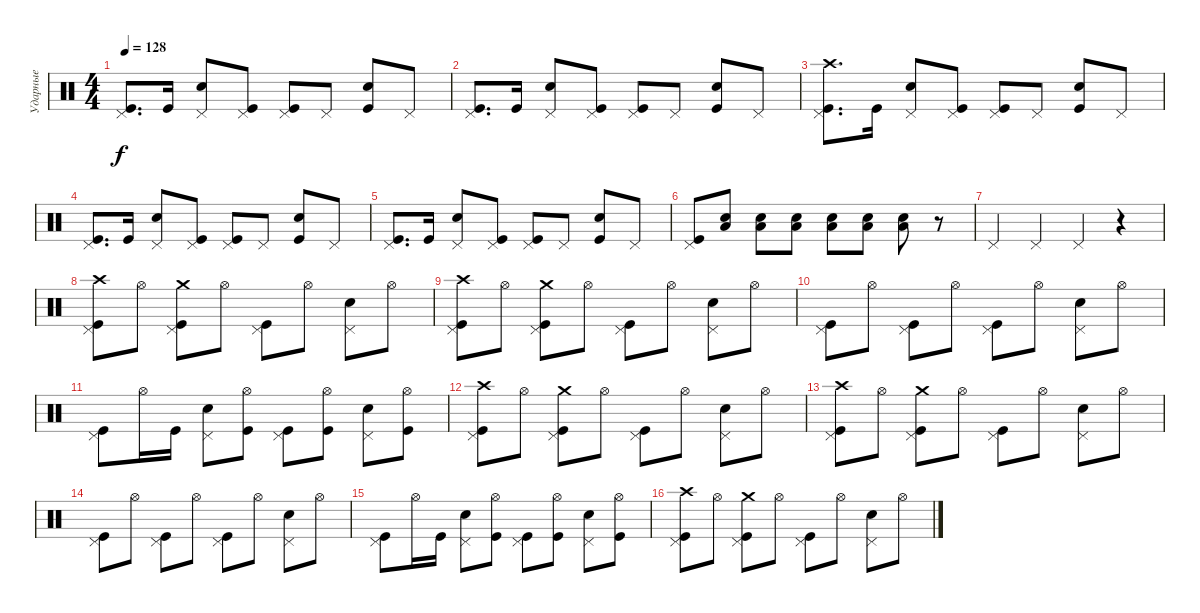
\track ("Ударные" "Ударные") {instrument percussion}
\staff {score}
\articulation defaults
\ts (4 4)
\tempo 128
\clef neutral
\ks c
("Kick (hit)" "Pedal Hi-Hat (hit)").8{d dy f} "Kick (hit)".16 ("Pedal Hi-Hat (hit)" "Snare (hit) 2").8 ("Kick (hit)" "Pedal Hi-Hat (hit)").8 ("Kick (hit)" "Pedal Hi-Hat (hit)").8 "Pedal Hi-Hat (hit)".8 ("Kick (hit)" "Snare (hit) 2").8 "Pedal Hi-Hat (hit)".8 |
("Kick (hit)" "Pedal Hi-Hat (hit)").8{d} "Kick (hit)".16 ("Pedal Hi-Hat (hit)" "Snare (hit) 2").8 ("Kick (hit)" "Pedal Hi-Hat (hit)").8 ("Kick (hit)" "Pedal Hi-Hat (hit)").8 "Pedal Hi-Hat (hit)".8 ("Kick (hit)" "Snare (hit) 2").8 "Pedal Hi-Hat (hit)".8 |
("Kick (hit)" "Pedal Hi-Hat (hit)" "Crash high (hit)").8{d} "Kick (hit)".16 ("Pedal Hi-Hat (hit)" "Snare (hit) 2").8 ("Kick (hit)" "Pedal Hi-Hat (hit)").8 ("Kick (hit)" "Pedal Hi-Hat (hit)").8 "Pedal Hi-Hat (hit)".8 ("Kick (hit)" "Snare (hit) 2").8 "Pedal Hi-Hat (hit)".8 |
("Kick (hit)" "Pedal Hi-Hat (hit)").8{d} "Kick (hit)".16 ("Pedal Hi-Hat (hit)" "Snare (hit) 2").8 ("Kick (hit)" "Pedal Hi-Hat (hit)").8 ("Kick (hit)" "Pedal Hi-Hat (hit)").8 "Pedal Hi-Hat (hit)".8 ("Kick (hit)" "Snare (hit) 2").8 "Pedal Hi-Hat (hit)".8 |
("Kick (hit)" "Pedal Hi-Hat (hit)").8{d} "Kick (hit)".16 ("Pedal Hi-Hat (hit)" "Snare (hit) 2").8 ("Kick (hit)" "Pedal Hi-Hat (hit)").8 ("Kick (hit)" "Pedal Hi-Hat (hit)").8 "Pedal Hi-Hat (hit)".8 ("Kick (hit)" "Snare (hit) 2").8 "Pedal Hi-Hat (hit)".8 |
("Kick (hit)" "Pedal Hi-Hat (hit)").8 ("Snare (hit) 2" "Low Tom (hit)").8 ("Snare (hit) 2" "Low Tom (hit)").8 ("Snare (hit) 2" "Low Tom (hit)").8 ("Snare (hit) 2" "Low Tom (hit)").8 ("Snare (hit) 2" "Low Tom (hit)").8 ("Snare (hit) 2" "Low Tom (hit)").8 r.8 |
"Pedal Hi-Hat (hit)".4 "Pedal Hi-Hat (hit)".4 "Pedal Hi-Hat (hit)".4 r.4 |
("Kick (hit)" "Pedal Hi-Hat (hit)" "Crash high (hit)").8 "Hi-Hat (open)".8 ("Kick (hit)" "Pedal Hi-Hat (hit)" "Crash medium (hit)").8 "Hi-Hat (open)".8 ("Kick (hit)" "Pedal Hi-Hat (hit)").8 "Hi-Hat (open)".8 ("Snare (hit) 2" "Pedal Hi-Hat (hit)").8 "Hi-Hat (open)".8 |
("Kick (hit)" "Pedal Hi-Hat (hit)" "Crash high (hit)").8 "Hi-Hat (open)".8 ("Kick (hit)" "Pedal Hi-Hat (hit)" "Crash medium (hit)").8 "Hi-Hat (open)".8 ("Kick (hit)" "Pedal Hi-Hat (hit)").8 "Hi-Hat (open)".8 ("Snare (hit) 2" "Pedal Hi-Hat (hit)").8 "Hi-Hat (open)".8 |
("Kick (hit)" "Pedal Hi-Hat (hit)").8 "Hi-Hat (open)".8 ("Kick (hit)" "Pedal Hi-Hat (hit)").8 "Hi-Hat (open)".8 ("Kick (hit)" "Pedal Hi-Hat (hit)").8 "Hi-Hat (open)".8 ("Snare (hit) 2" "Pedal Hi-Hat (hit)").8 "Hi-Hat (open)".8 |
("Kick (hit)" "Pedal Hi-Hat (hit)").8 "Hi-Hat (open)".16 "Kick (hit)".16 ("Pedal Hi-Hat (hit)" "Snare (hit) 2").8 ("Kick (hit)" "Hi-Hat (open)").8 ("Kick (hit)" "Pedal Hi-Hat (hit)").8 ("Kick (hit)" "Hi-Hat (open)").8 ("Snare (hit) 2" "Pedal Hi-Hat (hit)").8 ("Kick (hit)" "Hi-Hat (open)").8 |
("Kick (hit)" "Pedal Hi-Hat (hit)" "Crash high (hit)").8 "Hi-Hat (open)".8 ("Kick (hit)" "Pedal Hi-Hat (hit)" "Crash medium (hit)").8 "Hi-Hat (open)".8 ("Kick (hit)" "Pedal Hi-Hat (hit)").8 "Hi-Hat (open)".8 ("Snare (hit) 2" "Pedal Hi-Hat (hit)").8 "Hi-Hat (open)".8 |
("Kick (hit)" "Pedal Hi-Hat (hit)" "Crash high (hit)").8 "Hi-Hat (open)".8 ("Kick (hit)" "Pedal Hi-Hat (hit)" "Crash medium (hit)").8 "Hi-Hat (open)".8 ("Kick (hit)" "Pedal Hi-Hat (hit)").8 "Hi-Hat (open)".8 ("Snare (hit) 2" "Pedal Hi-Hat (hit)").8 "Hi-Hat (open)".8 |
("Kick (hit)" "Pedal Hi-Hat (hit)").8 "Hi-Hat (open)".8 ("Kick (hit)" "Pedal Hi-Hat (hit)").8 "Hi-Hat (open)".8 ("Kick (hit)" "Pedal Hi-Hat (hit)").8 "Hi-Hat (open)".8 ("Snare (hit) 2" "Pedal Hi-Hat (hit)").8 "Hi-Hat (open)".8 |
("Kick (hit)" "Pedal Hi-Hat (hit)").8 "Hi-Hat (open)".16 "Kick (hit)".16 ("Pedal Hi-Hat (hit)" "Snare (hit) 2").8 ("Kick (hit)" "Hi-Hat (open)").8 ("Kick (hit)" "Pedal Hi-Hat (hit)").8 ("Kick (hit)" "Hi-Hat (open)").8 ("Snare (hit) 2" "Pedal Hi-Hat (hit)").8 ("Kick (hit)" "Hi-Hat (open)").8 |
("Kick (hit)" "Pedal Hi-Hat (hit)" "Crash high (hit)").8 "Hi-Hat (open)".8 ("Kick (hit)" "Pedal Hi-Hat (hit)" "Crash medium (hit)").8 "Hi-Hat (open)".8 ("Kick (hit)" "Pedal Hi-Hat (hit)").8 "Hi-Hat (open)".8 ("Snare (hit) 2" "Pedal Hi-Hat (hit)").8 "Hi-Hat (open)".8
